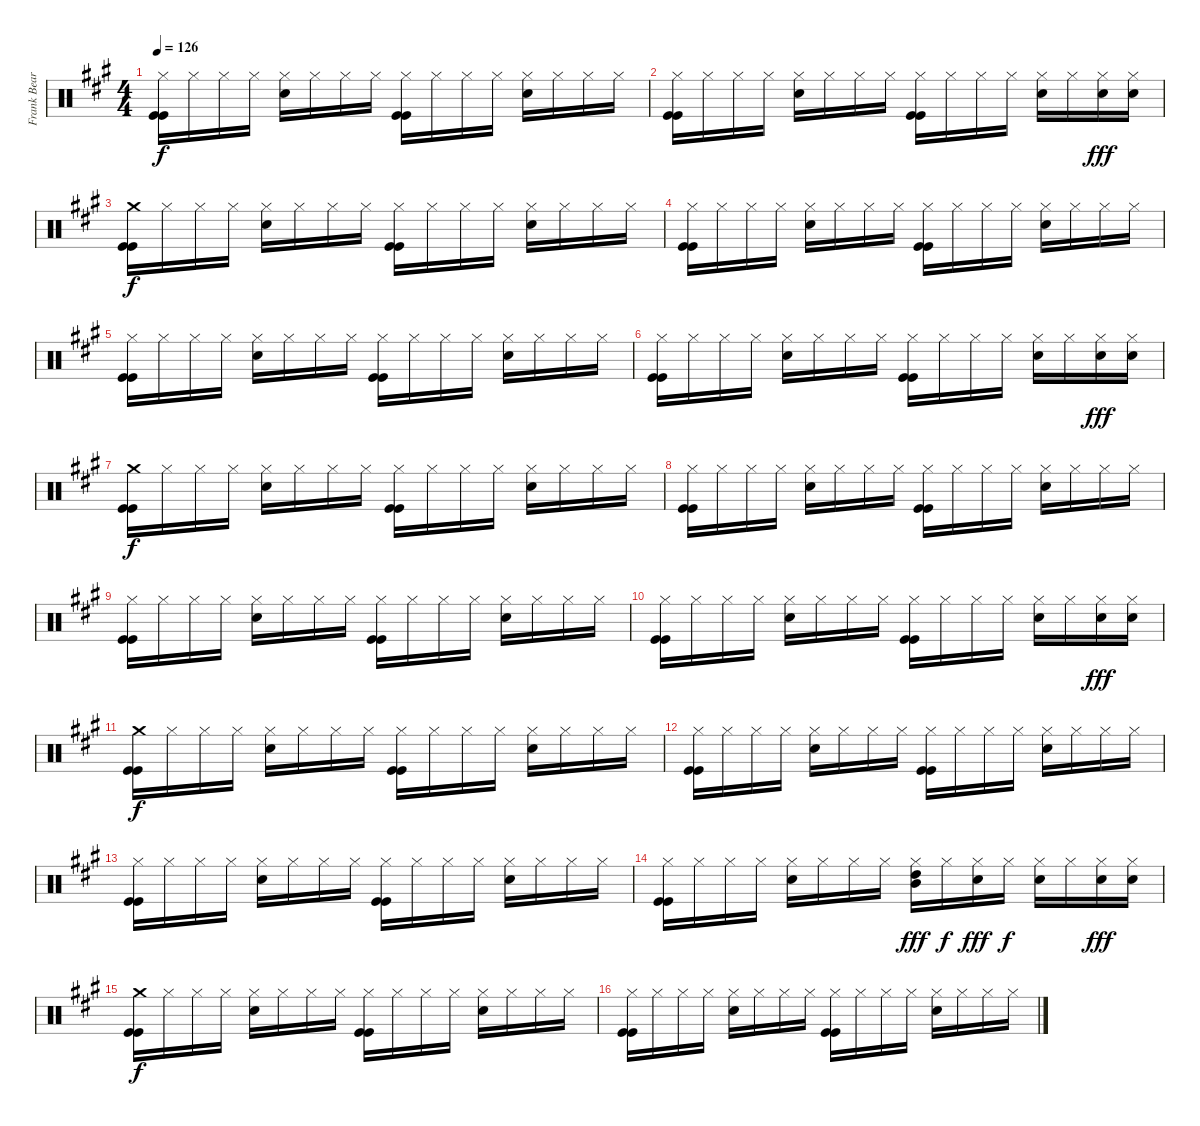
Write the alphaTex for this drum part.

\track ("Frank Beard: Drums" "Frank Bear") {instrument percussion}
\staff {score}
\articulation defaults
\ts (4 4)
\tempo 126
\clef neutral
\ks a
("Hi-Hat (closed)" "Kick (hit)" "Kick (hit)").16{dy f} "Hi-Hat (closed)".16 "Hi-Hat (closed)".16 "Hi-Hat (closed)".16 ("Hi-Hat (closed)" "Electric Snare (hit)").16 "Hi-Hat (closed)".16 "Hi-Hat (closed)".16 "Hi-Hat (closed)".16 ("Hi-Hat (closed)" "Kick (hit)" "Kick (hit)").16 "Hi-Hat (closed)".16 "Hi-Hat (closed)".16 "Hi-Hat (closed)".16 ("Hi-Hat (closed)" "Electric Snare (hit)").16 "Hi-Hat (closed)".16 "Hi-Hat (closed)".16 "Hi-Hat (closed)".16 |
("Hi-Hat (closed)" "Kick (hit)" "Kick (hit)").16 "Hi-Hat (closed)".16 "Hi-Hat (closed)".16 "Hi-Hat (closed)".16 ("Hi-Hat (closed)" "Electric Snare (hit)").16 "Hi-Hat (closed)".16 "Hi-Hat (closed)".16 "Hi-Hat (closed)".16 ("Hi-Hat (closed)" "Kick (hit)" "Kick (hit)").16 "Hi-Hat (closed)".16 "Hi-Hat (closed)".16 "Hi-Hat (closed)".16 ("Hi-Hat (closed)" "Electric Snare (hit)").16 "Hi-Hat (closed)".16 ("Hi-Hat (closed)" "Electric Snare (hit)").16{dy fff} ("Hi-Hat (closed)" "Electric Snare (hit)").16 |
("Crash medium (hit)" "Kick (hit)" "Kick (hit)").16{dy f} "Hi-Hat (closed)".16 "Hi-Hat (closed)".16 "Hi-Hat (closed)".16 ("Hi-Hat (closed)" "Electric Snare (hit)").16 "Hi-Hat (closed)".16 "Hi-Hat (closed)".16 "Hi-Hat (closed)".16 ("Hi-Hat (closed)" "Kick (hit)" "Kick (hit)").16 "Hi-Hat (closed)".16 "Hi-Hat (closed)".16 "Hi-Hat (closed)".16 ("Hi-Hat (closed)" "Electric Snare (hit)").16 "Hi-Hat (closed)".16 "Hi-Hat (closed)".16 "Hi-Hat (closed)".16 |
("Hi-Hat (closed)" "Kick (hit)" "Kick (hit)").16 "Hi-Hat (closed)".16 "Hi-Hat (closed)".16 "Hi-Hat (closed)".16 ("Hi-Hat (closed)" "Electric Snare (hit)").16 "Hi-Hat (closed)".16 "Hi-Hat (closed)".16 "Hi-Hat (closed)".16 ("Hi-Hat (closed)" "Kick (hit)" "Kick (hit)").16 "Hi-Hat (closed)".16 "Hi-Hat (closed)".16 "Hi-Hat (closed)".16 ("Hi-Hat (closed)" "Electric Snare (hit)").16 "Hi-Hat (closed)".16 "Hi-Hat (closed)".16 "Hi-Hat (closed)".16 |
("Hi-Hat (closed)" "Kick (hit)" "Kick (hit)").16 "Hi-Hat (closed)".16 "Hi-Hat (closed)".16 "Hi-Hat (closed)".16 ("Hi-Hat (closed)" "Electric Snare (hit)").16 "Hi-Hat (closed)".16 "Hi-Hat (closed)".16 "Hi-Hat (closed)".16 ("Hi-Hat (closed)" "Kick (hit)" "Kick (hit)").16 "Hi-Hat (closed)".16 "Hi-Hat (closed)".16 "Hi-Hat (closed)".16 ("Hi-Hat (closed)" "Electric Snare (hit)").16 "Hi-Hat (closed)".16 "Hi-Hat (closed)".16 "Hi-Hat (closed)".16 |
("Hi-Hat (closed)" "Kick (hit)" "Kick (hit)").16 "Hi-Hat (closed)".16 "Hi-Hat (closed)".16 "Hi-Hat (closed)".16 ("Hi-Hat (closed)" "Electric Snare (hit)").16 "Hi-Hat (closed)".16 "Hi-Hat (closed)".16 "Hi-Hat (closed)".16 ("Hi-Hat (closed)" "Kick (hit)" "Kick (hit)").16 "Hi-Hat (closed)".16 "Hi-Hat (closed)".16 "Hi-Hat (closed)".16 ("Hi-Hat (closed)" "Electric Snare (hit)").16 "Hi-Hat (closed)".16 ("Hi-Hat (closed)" "Electric Snare (hit)").16{dy fff} ("Hi-Hat (closed)" "Electric Snare (hit)").16 |
("Crash medium (hit)" "Kick (hit)" "Kick (hit)").16{dy f} "Hi-Hat (closed)".16 "Hi-Hat (closed)".16 "Hi-Hat (closed)".16 ("Hi-Hat (closed)" "Electric Snare (hit)").16 "Hi-Hat (closed)".16 "Hi-Hat (closed)".16 "Hi-Hat (closed)".16 ("Hi-Hat (closed)" "Kick (hit)" "Kick (hit)").16 "Hi-Hat (closed)".16 "Hi-Hat (closed)".16 "Hi-Hat (closed)".16 ("Hi-Hat (closed)" "Electric Snare (hit)").16 "Hi-Hat (closed)".16 "Hi-Hat (closed)".16 "Hi-Hat (closed)".16 |
("Hi-Hat (closed)" "Kick (hit)" "Kick (hit)").16 "Hi-Hat (closed)".16 "Hi-Hat (closed)".16 "Hi-Hat (closed)".16 ("Hi-Hat (closed)" "Electric Snare (hit)").16 "Hi-Hat (closed)".16 "Hi-Hat (closed)".16 "Hi-Hat (closed)".16 ("Hi-Hat (closed)" "Kick (hit)" "Kick (hit)").16 "Hi-Hat (closed)".16 "Hi-Hat (closed)".16 "Hi-Hat (closed)".16 ("Hi-Hat (closed)" "Electric Snare (hit)").16 "Hi-Hat (closed)".16 "Hi-Hat (closed)".16 "Hi-Hat (closed)".16 |
("Hi-Hat (closed)" "Kick (hit)" "Kick (hit)").16 "Hi-Hat (closed)".16 "Hi-Hat (closed)".16 "Hi-Hat (closed)".16 ("Hi-Hat (closed)" "Electric Snare (hit)").16 "Hi-Hat (closed)".16 "Hi-Hat (closed)".16 "Hi-Hat (closed)".16 ("Hi-Hat (closed)" "Kick (hit)" "Kick (hit)").16 "Hi-Hat (closed)".16 "Hi-Hat (closed)".16 "Hi-Hat (closed)".16 ("Hi-Hat (closed)" "Electric Snare (hit)").16 "Hi-Hat (closed)".16 "Hi-Hat (closed)".16 "Hi-Hat (closed)".16 |
("Hi-Hat (closed)" "Kick (hit)" "Kick (hit)").16 "Hi-Hat (closed)".16 "Hi-Hat (closed)".16 "Hi-Hat (closed)".16 ("Hi-Hat (closed)" "Electric Snare (hit)").16 "Hi-Hat (closed)".16 "Hi-Hat (closed)".16 "Hi-Hat (closed)".16 ("Hi-Hat (closed)" "Kick (hit)" "Kick (hit)").16 "Hi-Hat (closed)".16 "Hi-Hat (closed)".16 "Hi-Hat (closed)".16 ("Hi-Hat (closed)" "Electric Snare (hit)").16 "Hi-Hat (closed)".16 ("Hi-Hat (closed)" "Electric Snare (hit)").16{dy fff} ("Hi-Hat (closed)" "Electric Snare (hit)").16 |
("Crash medium (hit)" "Kick (hit)" "Kick (hit)").16{dy f} "Hi-Hat (closed)".16 "Hi-Hat (closed)".16 "Hi-Hat (closed)".16 ("Hi-Hat (closed)" "Electric Snare (hit)").16 "Hi-Hat (closed)".16 "Hi-Hat (closed)".16 "Hi-Hat (closed)".16 ("Hi-Hat (closed)" "Kick (hit)" "Kick (hit)").16 "Hi-Hat (closed)".16 "Hi-Hat (closed)".16 "Hi-Hat (closed)".16 ("Hi-Hat (closed)" "Electric Snare (hit)").16 "Hi-Hat (closed)".16 "Hi-Hat (closed)".16 "Hi-Hat (closed)".16 |
("Hi-Hat (closed)" "Kick (hit)" "Kick (hit)").16 "Hi-Hat (closed)".16 "Hi-Hat (closed)".16 "Hi-Hat (closed)".16 ("Hi-Hat (closed)" "Electric Snare (hit)").16 "Hi-Hat (closed)".16 "Hi-Hat (closed)".16 "Hi-Hat (closed)".16 ("Hi-Hat (closed)" "Kick (hit)" "Kick (hit)").16 "Hi-Hat (closed)".16 "Hi-Hat (closed)".16 "Hi-Hat (closed)".16 ("Hi-Hat (closed)" "Electric Snare (hit)").16 "Hi-Hat (closed)".16 "Hi-Hat (closed)".16 "Hi-Hat (closed)".16 |
("Hi-Hat (closed)" "Kick (hit)" "Kick (hit)").16 "Hi-Hat (closed)".16 "Hi-Hat (closed)".16 "Hi-Hat (closed)".16 ("Hi-Hat (closed)" "Electric Snare (hit)").16 "Hi-Hat (closed)".16 "Hi-Hat (closed)".16 "Hi-Hat (closed)".16 ("Hi-Hat (closed)" "Kick (hit)" "Kick (hit)").16 "Hi-Hat (closed)".16 "Hi-Hat (closed)".16 "Hi-Hat (closed)".16 ("Hi-Hat (closed)" "Electric Snare (hit)").16 "Hi-Hat (closed)".16 "Hi-Hat (closed)".16 "Hi-Hat (closed)".16 |
("Hi-Hat (closed)" "Kick (hit)" "Kick (hit)").16 "Hi-Hat (closed)".16 "Hi-Hat (closed)".16 "Hi-Hat (closed)".16 ("Hi-Hat (closed)" "Electric Snare (hit)").16 "Hi-Hat (closed)".16 "Hi-Hat (closed)".16 "Hi-Hat (closed)".16 ("Hi-Hat (closed)" "High Tom (hit)" "Mid Tom (hit)").16{dy fff} "Hi-Hat (closed)".16{dy f} ("Hi-Hat (closed)" "Electric Snare (hit)").16{dy fff} "Hi-Hat (closed)".16{dy f} ("Hi-Hat (closed)" "Electric Snare (hit)").16 "Hi-Hat (closed)".16 ("Hi-Hat (closed)" "Electric Snare (hit)").16{dy fff} ("Hi-Hat (closed)" "Electric Snare (hit)").16 |
("Crash medium (hit)" "Kick (hit)" "Kick (hit)").16{dy f} "Hi-Hat (closed)".16 "Hi-Hat (closed)".16 "Hi-Hat (closed)".16 ("Hi-Hat (closed)" "Electric Snare (hit)").16 "Hi-Hat (closed)".16 "Hi-Hat (closed)".16 "Hi-Hat (closed)".16 ("Hi-Hat (closed)" "Kick (hit)" "Kick (hit)").16 "Hi-Hat (closed)".16 "Hi-Hat (closed)".16 "Hi-Hat (closed)".16 ("Hi-Hat (closed)" "Electric Snare (hit)").16 "Hi-Hat (closed)".16 "Hi-Hat (closed)".16 "Hi-Hat (closed)".16 |
("Hi-Hat (closed)" "Kick (hit)" "Kick (hit)").16 "Hi-Hat (closed)".16 "Hi-Hat (closed)".16 "Hi-Hat (closed)".16 ("Hi-Hat (closed)" "Electric Snare (hit)").16 "Hi-Hat (closed)".16 "Hi-Hat (closed)".16 "Hi-Hat (closed)".16 ("Hi-Hat (closed)" "Kick (hit)" "Kick (hit)").16 "Hi-Hat (closed)".16 "Hi-Hat (closed)".16 "Hi-Hat (closed)".16 ("Hi-Hat (closed)" "Electric Snare (hit)").16 "Hi-Hat (closed)".16 "Hi-Hat (closed)".16 "Hi-Hat (closed)".16
